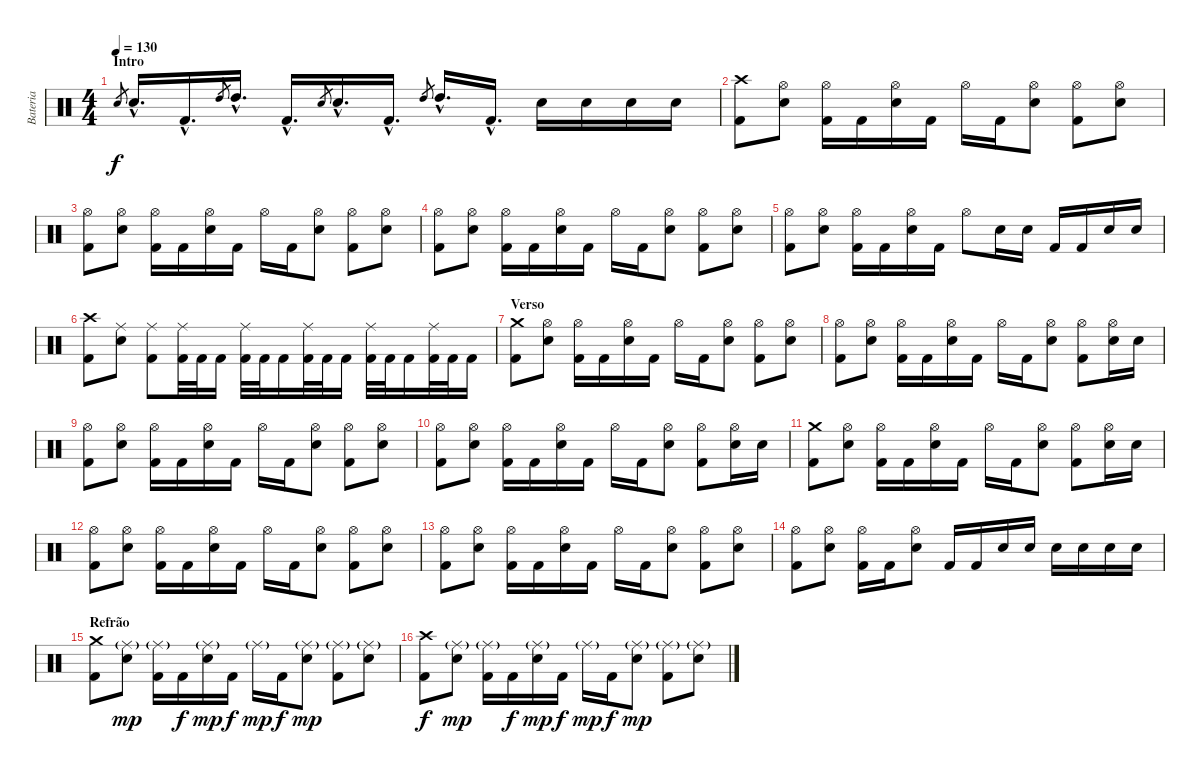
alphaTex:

\track ("Bateria" "Bateria") {instrument percussion}
\staff {score}
\articulation defaults
\ts (4 4)
\section ("" "Intro")
\tempo 130
\clef neutral
\ks c "Electric Snare (hit)".8{gr dy f} "Electric Snare (hit)"{hac}.16{d} "Kick (hit) 2"{hac}.16{d} "High Tom (hit)".8{gr} "High Tom (hit)"{hac}.16{d} "Kick (hit) 2"{hac}.16{d} "Electric Snare (hit)".8{gr} "Electric Snare (hit)"{hac}.16{d} "Kick (hit) 2"{hac}.16{d} "High Tom (hit)".8{gr} "High Tom (hit)"{hac}.16{d} "Kick (hit) 2"{hac}.16{d} "Electric Snare (hit)".16 "Electric Snare (hit)".16 "Electric Snare (hit)".16 "Electric Snare (hit)".16
|
("Crash high (hit)" "Kick (hit) 2").8 ("Hi-Hat (open)" "Electric Snare (hit)").8 ("Hi-Hat (open)" "Kick (hit) 2").16 "Kick (hit) 2".16 ("Hi-Hat (open)" "Electric Snare (hit)").16 "Kick (hit) 2".16 "Hi-Hat (open)".16 "Kick (hit) 2".16 ("Hi-Hat (open)" "Electric Snare (hit)").8 ("Hi-Hat (open)" "Kick (hit) 2").8 ("Hi-Hat (open)" "Electric Snare (hit)").8 |
("Hi-Hat (open)" "Kick (hit) 2").8 ("Hi-Hat (open)" "Electric Snare (hit)").8 ("Hi-Hat (open)" "Kick (hit) 2").16 "Kick (hit) 2".16 ("Hi-Hat (open)" "Electric Snare (hit)").16 "Kick (hit) 2".16 "Hi-Hat (open)".16 "Kick (hit) 2".16 ("Hi-Hat (open)" "Electric Snare (hit)").8 ("Hi-Hat (open)" "Kick (hit) 2").8 ("Hi-Hat (open)" "Electric Snare (hit)").8 |
("Hi-Hat (open)" "Kick (hit) 2").8 ("Hi-Hat (open)" "Electric Snare (hit)").8 ("Hi-Hat (open)" "Kick (hit) 2").16 "Kick (hit) 2".16 ("Hi-Hat (open)" "Electric Snare (hit)").16 "Kick (hit) 2".16 "Hi-Hat (open)".16 "Kick (hit) 2".16 ("Hi-Hat (open)" "Electric Snare (hit)").8 ("Hi-Hat (open)" "Kick (hit) 2").8 ("Hi-Hat (open)" "Electric Snare (hit)").8 |
("Hi-Hat (open)" "Kick (hit) 2").8 ("Hi-Hat (open)" "Electric Snare (hit)").8 ("Hi-Hat (open)" "Kick (hit) 2").16 "Kick (hit) 2".16 ("Hi-Hat (open)" "Electric Snare (hit)").16 "Kick (hit) 2".16 "Hi-Hat (open)".8 "Electric Snare (hit)".16 "Electric Snare (hit)".16 "Kick (hit) 2".16 "Kick (hit) 2".16 "Electric Snare (hit)".16 "Electric Snare (hit)".16 |
("Crash high (hit)" "Kick (hit) 2").8 ("Ride (middle)" "Electric Snare (hit)").8 ("Ride (middle)" "Kick (hit) 2").8 ("Ride (middle)" "Kick (hit) 2").32 "Kick (hit) 2".32 "Kick (hit) 2".16 ("Ride (middle)" "Kick (hit) 2").32 "Kick (hit) 2".32 "Kick (hit) 2".16 ("Ride (middle)" "Kick (hit) 2").32 "Kick (hit) 2".32 "Kick (hit) 2".16 ("Ride (middle)" "Kick (hit) 2").32 "Kick (hit) 2".32 "Kick (hit) 2".16 ("Ride (middle)" "Kick (hit) 2").32 "Kick (hit) 2".32 "Kick (hit) 2".16 |
\section ("" "Verso")
("Crash medium (hit)" "Kick (hit) 2").8 ("Hi-Hat (open)" "Electric Snare (hit)").8 ("Hi-Hat (open)" "Kick (hit) 2").16 "Kick (hit) 2".16 ("Hi-Hat (open)" "Electric Snare (hit)").16 "Kick (hit) 2".16 "Hi-Hat (open)".16 "Kick (hit) 2".16 ("Hi-Hat (open)" "Electric Snare (hit)").8 ("Hi-Hat (open)" "Kick (hit) 2").8 ("Hi-Hat (open)" "Electric Snare (hit)").8 |
("Hi-Hat (open)" "Kick (hit) 2").8 ("Hi-Hat (open)" "Electric Snare (hit)").8 ("Hi-Hat (open)" "Kick (hit) 2").16 "Kick (hit) 2".16 ("Hi-Hat (open)" "Electric Snare (hit)").16 "Kick (hit) 2".16 "Hi-Hat (open)".16 "Kick (hit) 2".16 ("Hi-Hat (open)" "Electric Snare (hit)").8 ("Hi-Hat (open)" "Kick (hit) 2").8 ("Hi-Hat (open)" "Electric Snare (hit)").16 "Electric Snare (hit)".16 |
("Hi-Hat (open)" "Kick (hit) 2").8 ("Hi-Hat (open)" "Electric Snare (hit)").8 ("Hi-Hat (open)" "Kick (hit) 2").16 "Kick (hit) 2".16 ("Hi-Hat (open)" "Electric Snare (hit)").16 "Kick (hit) 2".16 "Hi-Hat (open)".16 "Kick (hit) 2".16 ("Hi-Hat (open)" "Electric Snare (hit)").8 ("Hi-Hat (open)" "Kick (hit) 2").8 ("Hi-Hat (open)" "Electric Snare (hit)").8 |
("Hi-Hat (open)" "Kick (hit) 2").8 ("Hi-Hat (open)" "Electric Snare (hit)").8 ("Hi-Hat (open)" "Kick (hit) 2").16 "Kick (hit) 2".16 ("Hi-Hat (open)" "Electric Snare (hit)").16 "Kick (hit) 2".16 "Hi-Hat (open)".16 "Kick (hit) 2".16 ("Hi-Hat (open)" "Electric Snare (hit)").8 ("Hi-Hat (open)" "Kick (hit) 2").8 ("Hi-Hat (open)" "Electric Snare (hit)").16 "Electric Snare (hit)".16 |
("Crash medium (hit)" "Kick (hit) 2").8 ("Hi-Hat (open)" "Electric Snare (hit)").8 ("Hi-Hat (open)" "Kick (hit) 2").16 "Kick (hit) 2".16 ("Hi-Hat (open)" "Electric Snare (hit)").16 "Kick (hit) 2".16 "Hi-Hat (open)".16 "Kick (hit) 2".16 ("Hi-Hat (open)" "Electric Snare (hit)").8 ("Hi-Hat (open)" "Kick (hit) 2").8 ("Hi-Hat (open)" "Electric Snare (hit)").16 "Electric Snare (hit)".16 |
("Hi-Hat (open)" "Kick (hit) 2").8 ("Hi-Hat (open)" "Electric Snare (hit)").8 ("Hi-Hat (open)" "Kick (hit) 2").16 "Kick (hit) 2".16 ("Hi-Hat (open)" "Electric Snare (hit)").16 "Kick (hit) 2".16 "Hi-Hat (open)".16 "Kick (hit) 2".16 ("Hi-Hat (open)" "Electric Snare (hit)").8 ("Hi-Hat (open)" "Kick (hit) 2").8 ("Hi-Hat (open)" "Electric Snare (hit)").8 |
("Hi-Hat (open)" "Kick (hit) 2").8 ("Hi-Hat (open)" "Electric Snare (hit)").8 ("Hi-Hat (open)" "Kick (hit) 2").16 "Kick (hit) 2".16 ("Hi-Hat (open)" "Electric Snare (hit)").16 "Kick (hit) 2".16 "Hi-Hat (open)".16 "Kick (hit) 2".16 ("Hi-Hat (open)" "Electric Snare (hit)").8 ("Hi-Hat (open)" "Kick (hit) 2").8 ("Hi-Hat (open)" "Electric Snare (hit)").8 |
("Hi-Hat (open)" "Kick (hit) 2").8 ("Hi-Hat (open)" "Electric Snare (hit)").8 ("Hi-Hat (open)" "Kick (hit) 2").16 "Kick (hit) 2".16 ("Hi-Hat (open)" "Electric Snare (hit)").8 "Kick (hit) 2".16 "Kick (hit) 2".16 "Electric Snare (hit)".16 "Electric Snare (hit)".16 "Electric Snare (hit)".16 "Electric Snare (hit)".16 "Electric Snare (hit)".16 "Electric Snare (hit)".16 |
\section ("" "Refrão")
("Crash medium (hit)" "Kick (hit) 2").8 ("Ride (middle)"{g} "Electric Snare (hit)").8{dy mp} ("Ride (middle)"{g} "Kick (hit) 2").16 "Kick (hit) 2".16{dy f} ("Ride (middle)"{g} "Electric Snare (hit)").16{dy mp} "Kick (hit) 2".16{dy f} "Ride (middle)"{g}.16{dy mp} "Kick (hit) 2".16{dy f} ("Ride (middle)"{g} "Electric Snare (hit)").8{dy mp} ("Ride (middle)"{g} "Kick (hit) 2").8 ("Ride (middle)"{g} "Electric Snare (hit)").8 |
("Crash high (hit)" "Kick (hit) 2").8{dy f} ("Ride (middle)"{g} "Electric Snare (hit)").8{dy mp} ("Ride (middle)"{g} "Kick (hit) 2").16 "Kick (hit) 2".16{dy f} ("Ride (middle)"{g} "Electric Snare (hit)").16{dy mp} "Kick (hit) 2".16{dy f} "Ride (middle)"{g}.16{dy mp} "Kick (hit) 2".16{dy f} ("Ride (middle)"{g} "Electric Snare (hit)").8{dy mp} ("Ride (middle)"{g} "Kick (hit) 2").8 ("Ride (middle)"{g} "Electric Snare (hit)").8
